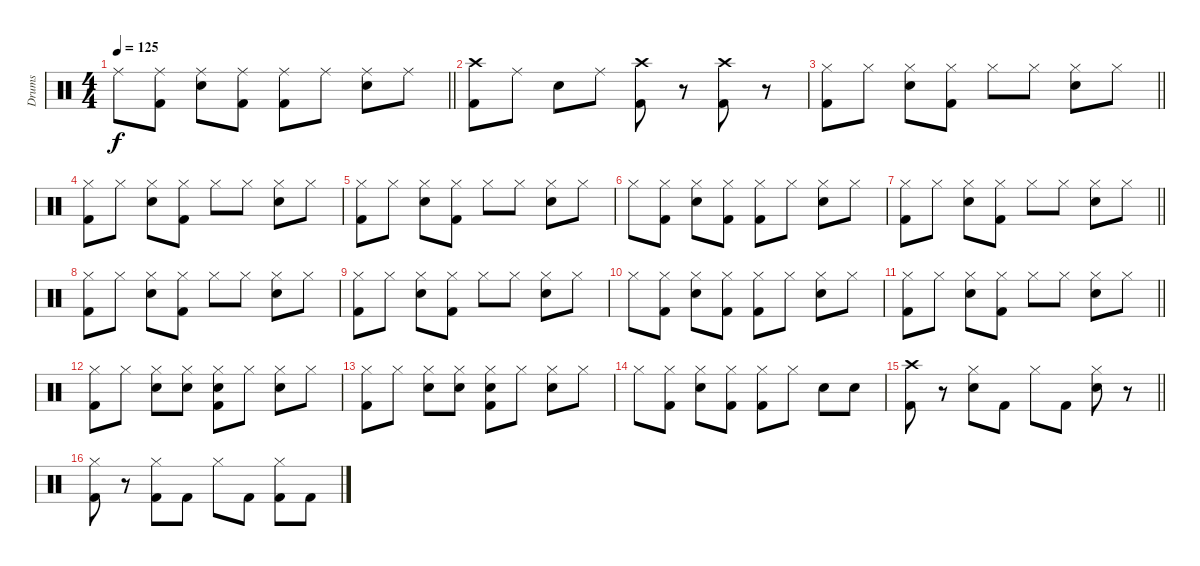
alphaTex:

\track ("Drums" "Drums") {instrument percussion}
\staff {score}
\articulation defaults
\ts (4 4)
\tempo 125
\clef neutral
\barLineRight lightlight
\ks c "Ride (middle)".8{dy f}
("Ride (middle)" "Kick (hit) 2").8 ("Ride (middle)" "Snare (hit) 2").8 ("Ride (middle)" "Kick (hit) 2").8 ("Ride (middle)" "Kick (hit) 2").8 "Ride (middle)".8 ("Ride (middle)" "Snare (hit) 2").8 "Ride (middle)".8 |
("Crash high (hit)" "Kick (hit) 2").8 "Ride (middle)".8 "Snare (hit) 2".8 "Ride (middle)".8 ("Crash high (hit)" "Kick (hit) 2").8 r.8 ("Crash high (hit)" "Kick (hit) 2").8 r.8 |
\barLineRight lightlight
("Hi-Hat (closed)" "Kick (hit) 2").8 "Hi-Hat (closed)".8 ("Hi-Hat (closed)" "Snare (hit) 2").8 ("Hi-Hat (closed)" "Kick (hit) 2").8 "Hi-Hat (closed)".8 "Hi-Hat (closed)".8 ("Hi-Hat (closed)" "Snare (hit) 2").8 "Hi-Hat (closed)".8 |
("Hi-Hat (closed)" "Kick (hit) 2").8 "Hi-Hat (closed)".8 ("Hi-Hat (closed)" "Snare (hit) 2").8 ("Hi-Hat (closed)" "Kick (hit) 2").8 "Hi-Hat (closed)".8 "Hi-Hat (closed)".8 ("Hi-Hat (closed)" "Snare (hit) 2").8 "Hi-Hat (closed)".8 |
("Hi-Hat (closed)" "Kick (hit) 2").8 "Hi-Hat (closed)".8 ("Hi-Hat (closed)" "Snare (hit) 2").8 ("Hi-Hat (closed)" "Kick (hit) 2").8 "Hi-Hat (closed)".8 "Hi-Hat (closed)".8 ("Hi-Hat (closed)" "Snare (hit) 2").8 "Hi-Hat (closed)".8 |
"Hi-Hat (closed)".8 ("Hi-Hat (closed)" "Kick (hit) 2").8 ("Hi-Hat (closed)" "Snare (hit) 2").8 ("Hi-Hat (closed)" "Kick (hit) 2").8 ("Hi-Hat (closed)" "Kick (hit) 2").8 "Hi-Hat (closed)".8 ("Hi-Hat (closed)" "Snare (hit) 2").8 "Hi-Hat (closed)".8 |
\barLineRight lightlight
("Hi-Hat (closed)" "Kick (hit) 2").8 "Hi-Hat (closed)".8 ("Hi-Hat (closed)" "Snare (hit) 2").8 ("Hi-Hat (closed)" "Kick (hit) 2").8 "Hi-Hat (closed)".8 "Hi-Hat (closed)".8 ("Hi-Hat (closed)" "Snare (hit) 2").8 "Hi-Hat (closed)".8 |
("Hi-Hat (closed)" "Kick (hit) 2").8 "Hi-Hat (closed)".8 ("Hi-Hat (closed)" "Snare (hit) 2").8 ("Hi-Hat (closed)" "Kick (hit) 2").8 "Hi-Hat (closed)".8 "Hi-Hat (closed)".8 ("Hi-Hat (closed)" "Snare (hit) 2").8 "Hi-Hat (closed)".8 |
("Hi-Hat (closed)" "Kick (hit) 2").8 "Hi-Hat (closed)".8 ("Hi-Hat (closed)" "Snare (hit) 2").8 ("Hi-Hat (closed)" "Kick (hit) 2").8 "Hi-Hat (closed)".8 "Hi-Hat (closed)".8 ("Hi-Hat (closed)" "Snare (hit) 2").8 "Hi-Hat (closed)".8 |
"Hi-Hat (closed)".8 ("Hi-Hat (closed)" "Kick (hit) 2").8 ("Hi-Hat (closed)" "Snare (hit) 2").8 ("Hi-Hat (closed)" "Kick (hit) 2").8 ("Hi-Hat (closed)" "Kick (hit) 2").8 "Hi-Hat (closed)".8 ("Hi-Hat (closed)" "Snare (hit) 2").8 "Hi-Hat (closed)".8 |
\barLineRight lightlight
("Hi-Hat (closed)" "Kick (hit) 2").8 "Hi-Hat (closed)".8 ("Hi-Hat (closed)" "Snare (hit) 2").8 ("Hi-Hat (closed)" "Kick (hit) 2").8 "Hi-Hat (closed)".8 "Hi-Hat (closed)".8 ("Hi-Hat (closed)" "Snare (hit) 2").8 "Hi-Hat (closed)".8 |
("Hi-Hat (closed)" "Kick (hit) 2").8 "Hi-Hat (closed)".8 ("Hi-Hat (closed)" "Snare (hit) 2").8 ("Hi-Hat (closed)" "Snare (hit) 2").8 ("Hi-Hat (closed)" "Snare (hit) 2" "Kick (hit) 2").8 "Hi-Hat (closed)".8 ("Hi-Hat (closed)" "Snare (hit) 2").8 "Hi-Hat (closed)".8 |
("Hi-Hat (closed)" "Kick (hit) 2").8 "Hi-Hat (closed)".8 ("Hi-Hat (closed)" "Snare (hit) 2").8 ("Hi-Hat (closed)" "Snare (hit) 2").8 ("Hi-Hat (closed)" "Snare (hit) 2" "Kick (hit) 2").8 "Hi-Hat (closed)".8 ("Hi-Hat (closed)" "Snare (hit) 2").8 "Hi-Hat (closed)".8 |
"Hi-Hat (closed)".8 ("Hi-Hat (closed)" "Kick (hit) 2").8 ("Hi-Hat (closed)" "Snare (hit) 2").8 ("Hi-Hat (closed)" "Kick (hit) 2").8 ("Hi-Hat (closed)" "Kick (hit) 2").8 "Hi-Hat (closed)".8 "Snare (hit) 2".8 "Snare (hit) 2".8 |
\barLineRight lightlight
("Crash high (hit)" "Kick (hit) 2").8 r.8 ("Hi-Hat (closed)" "Snare (hit) 2").8 "Kick (hit) 2".8 "Hi-Hat (closed)".8 "Kick (hit) 2".8 ("Hi-Hat (closed)" "Snare (hit) 2").8 r.8 |
("Hi-Hat (closed)" "Kick (hit) 2").8 r.8 ("Hi-Hat (closed)" "Kick (hit) 2").8 "Kick (hit) 2".8 "Hi-Hat (closed)".8 "Kick (hit) 2".8 ("Hi-Hat (closed)" "Kick (hit) 2").8 "Kick (hit) 2".8
